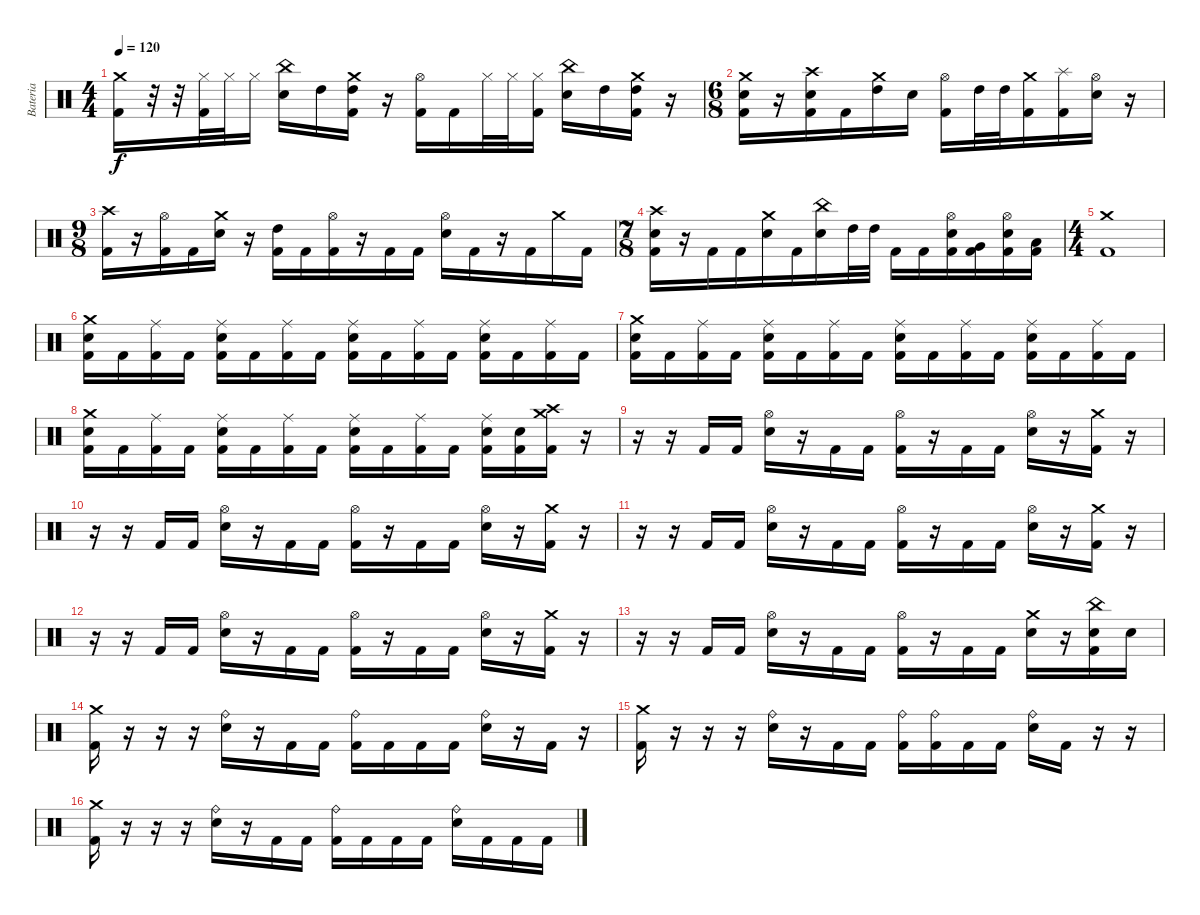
\track ("Bateria" "Bateria") {instrument percussion}
\staff {score}
\articulation defaults
\ts (4 4)
\tempo 120
\clef neutral
\ks c
("Crash medium (hit)" "Kick (hit) 2").16{dy f} r.32 r.32 ("Hi-Hat (closed)" "Kick (hit) 2").32 "Hi-Hat (closed)".32 "Hi-Hat (closed)".16 ("China (hit)" "Electric Snare (hit)").16 "High Tom (hit)".16 ("Crash medium (hit)" "High Tom (hit)" "Kick (hit) 2").16 r.16 ("Hi-Hat (open)" "Kick (hit) 2").16 "Kick (hit) 2".16 "Hi-Hat (closed)".32 "Hi-Hat (closed)".32 ("Hi-Hat (closed)" "Kick (hit) 2").16 ("China (hit)" "Electric Snare (hit)").16 "High Tom (hit)".16 ("Crash medium (hit)" "High Tom (hit)" "Kick (hit) 2").16 r.16 |
\ts (6 8)
("Crash medium (hit)" "Electric Snare (hit)" "Kick (hit) 2").16 r.16 ("Crash high (hit)" "Electric Snare (hit)" "Kick (hit) 2").16 "Kick (hit) 2".16 ("Crash medium (hit)" "High Tom (hit)").16 "Electric Snare (hit)".16 ("Hi-Hat (open)" "Kick (hit) 2").16 "High Tom (hit)".32 "High Tom (hit)".32 ("Crash medium (hit)" "Kick (hit) 2").16 ("Splash (hit)" "Kick (hit) 2").16 ("Hi-Hat (open)" "Electric Snare (hit)").16 r.16 |
\ts (9 8)
("Crash high (hit)" "Kick (hit) 2").16 r.16 ("Hi-Hat (open)" "Kick (hit) 2").16 "Kick (hit) 2".16 ("Crash medium (hit)" "Electric Snare (hit)").16 r.16 ("High Tom (hit)" "Kick (hit) 2").16 "Kick (hit) 2".16 ("Hi-Hat (open)" "Kick (hit) 2").16 r.16 "Kick (hit) 2".16 "Kick (hit) 2".16 ("Hi-Hat (open)" "Electric Snare (hit)").16 "Kick (hit) 2".16 r.16 "Kick (hit) 2".16 "Crash medium (hit)".16 "Kick (hit) 2".16 |
\ts (7 8)
("Crash high (hit)" "Electric Snare (hit)" "Kick (hit) 2").16 r.16 "Kick (hit) 2".16 "Kick (hit) 2".16 ("Crash medium (hit)" "Electric Snare (hit)").16 "Kick (hit) 2".16 ("China (hit)" "Electric Snare (hit)").16 "High Tom (hit)".32 "High Tom (hit)".32 "Kick (hit) 2".16 "Kick (hit) 2".16 ("Hi-Hat (open)" "Electric Snare (hit)" "Kick (hit) 2").16 ("Very Low Tom (hit)" "Kick (hit) 2").16 ("Hi-Hat (open)" "Electric Snare (hit)" "Kick (hit) 2").16 ("Low Tom (hit)" "Kick (hit) 2").16 |
\ts (4 4)
("Crash medium (hit)" "Kick (hit) 2").1 |
("Crash medium (hit)" "Electric Snare (hit)" "Kick (hit) 2").16 "Kick (hit) 2".16 ("Ride (middle)" "Kick (hit) 2").16 "Kick (hit) 2".16 ("Ride (middle)" "Electric Snare (hit)" "Kick (hit) 2").16 "Kick (hit) 2".16 ("Ride (middle)" "Kick (hit) 2").16 "Kick (hit) 2".16 ("Ride (middle)" "Electric Snare (hit)" "Kick (hit) 2").16 "Kick (hit) 2".16 ("Ride (middle)" "Kick (hit) 2").16 "Kick (hit) 2".16 ("Ride (middle)" "Electric Snare (hit)" "Kick (hit) 2").16 "Kick (hit) 2".16 ("Ride (middle)" "Kick (hit) 2").16 "Kick (hit) 2".16 |
("Crash medium (hit)" "Electric Snare (hit)" "Kick (hit) 2").16 "Kick (hit) 2".16 ("Ride (middle)" "Kick (hit) 2").16 "Kick (hit) 2".16 ("Ride (middle)" "Electric Snare (hit)" "Kick (hit) 2").16 "Kick (hit) 2".16 ("Ride (middle)" "Kick (hit) 2").16 "Kick (hit) 2".16 ("Ride (middle)" "Electric Snare (hit)" "Kick (hit) 2").16 "Kick (hit) 2".16 ("Ride (middle)" "Kick (hit) 2").16 "Kick (hit) 2".16 ("Ride (middle)" "Electric Snare (hit)" "Kick (hit) 2").16 "Kick (hit) 2".16 ("Ride (middle)" "Kick (hit) 2").16 "Kick (hit) 2".16 |
("Crash medium (hit)" "Electric Snare (hit)" "Kick (hit) 2").16 "Kick (hit) 2".16 ("Ride (middle)" "Kick (hit) 2").16 "Kick (hit) 2".16 ("Ride (middle)" "Electric Snare (hit)" "Kick (hit) 2").16 "Kick (hit) 2".16 ("Ride (middle)" "Kick (hit) 2").16 "Kick (hit) 2".16 ("Ride (middle)" "Electric Snare (hit)" "Kick (hit) 2").16 "Kick (hit) 2".16 ("Ride (middle)" "Kick (hit) 2").16 "Kick (hit) 2".16 ("Ride (middle)" "Electric Snare (hit)" "Kick (hit) 2").16 ("Electric Snare (hit)" "Kick (hit) 2").16 ("Crash medium (hit)" "Crash high (hit)" "Kick (hit) 2").16 r.16 |
r.16 r.16 "Kick (hit) 2".16 "Kick (hit) 2".16 ("Hi-Hat (open)" "Electric Snare (hit)").16 r.16 "Kick (hit) 2".16 "Kick (hit) 2".16 ("Hi-Hat (open)" "Kick (hit) 2").16 r.16 "Kick (hit) 2".16 "Kick (hit) 2".16 ("Hi-Hat (open)" "Electric Snare (hit)").16 r.16 ("Crash medium (hit)" "Kick (hit) 2").16 r.16 |
r.16 r.16 "Kick (hit) 2".16 "Kick (hit) 2".16 ("Hi-Hat (open)" "Electric Snare (hit)").16 r.16 "Kick (hit) 2".16 "Kick (hit) 2".16 ("Hi-Hat (open)" "Kick (hit) 2").16 r.16 "Kick (hit) 2".16 "Kick (hit) 2".16 ("Hi-Hat (open)" "Electric Snare (hit)").16 r.16 ("Crash medium (hit)" "Kick (hit) 2").16 r.16 |
r.16 r.16 "Kick (hit) 2".16 "Kick (hit) 2".16 ("Hi-Hat (open)" "Electric Snare (hit)").16 r.16 "Kick (hit) 2".16 "Kick (hit) 2".16 ("Hi-Hat (open)" "Kick (hit) 2").16 r.16 "Kick (hit) 2".16 "Kick (hit) 2".16 ("Hi-Hat (open)" "Electric Snare (hit)").16 r.16 ("Crash medium (hit)" "Kick (hit) 2").16 r.16 |
r.16 r.16 "Kick (hit) 2".16 "Kick (hit) 2".16 ("Hi-Hat (open)" "Electric Snare (hit)").16 r.16 "Kick (hit) 2".16 "Kick (hit) 2".16 ("Hi-Hat (open)" "Kick (hit) 2").16 r.16 "Kick (hit) 2".16 "Kick (hit) 2".16 ("Hi-Hat (open)" "Electric Snare (hit)").16 r.16 ("Crash medium (hit)" "Kick (hit) 2").16 r.16 |
r.16 r.16 "Kick (hit) 2".16 "Kick (hit) 2".16 ("Hi-Hat (open)" "Electric Snare (hit)").16 r.16 "Kick (hit) 2".16 "Kick (hit) 2".16 ("Hi-Hat (open)" "Kick (hit) 2").16 r.16 "Kick (hit) 2".16 "Kick (hit) 2".16 ("Crash medium (hit)" "Electric Snare (hit)").16 r.16 ("China (hit)" "Electric Snare (hit)" "Kick (hit) 2").16 "Electric Snare (hit)".16 |
("Crash medium (hit)" "Kick (hit) 2").16 r.16 r.16 r.16 ("Ride (bell)" "Electric Snare (hit)").16 r.16 "Kick (hit) 2".16 "Kick (hit) 2".16 ("Ride (bell)" "Kick (hit) 2").16 "Kick (hit) 2".16 "Kick (hit) 2".16 "Kick (hit) 2".16 ("Ride (bell)" "Electric Snare (hit)").16 r.16 "Kick (hit) 2".16 r.16 |
("Crash medium (hit)" "Kick (hit) 2").16 r.16 r.16 r.16 ("Ride (bell)" "Electric Snare (hit)").16 r.16 "Kick (hit) 2".16 "Kick (hit) 2".16 ("Ride (bell)" "Kick (hit) 2").16 ("Ride (bell)" "Kick (hit) 2").16 "Kick (hit) 2".16 "Kick (hit) 2".16 ("Ride (bell)" "Electric Snare (hit)").16 "Kick (hit) 2".16 r.16 r.16 |
("Crash medium (hit)" "Kick (hit) 2").16 r.16 r.16 r.16 ("Ride (bell)" "Electric Snare (hit)").16 r.16 "Kick (hit) 2".16 "Kick (hit) 2".16 ("Ride (bell)" "Kick (hit) 2").16 "Kick (hit) 2".16 "Kick (hit) 2".16 "Kick (hit) 2".16 ("Ride (bell)" "Electric Snare (hit)").16 "Kick (hit) 2".16 "Kick (hit) 2".16 "Kick (hit) 2".16
